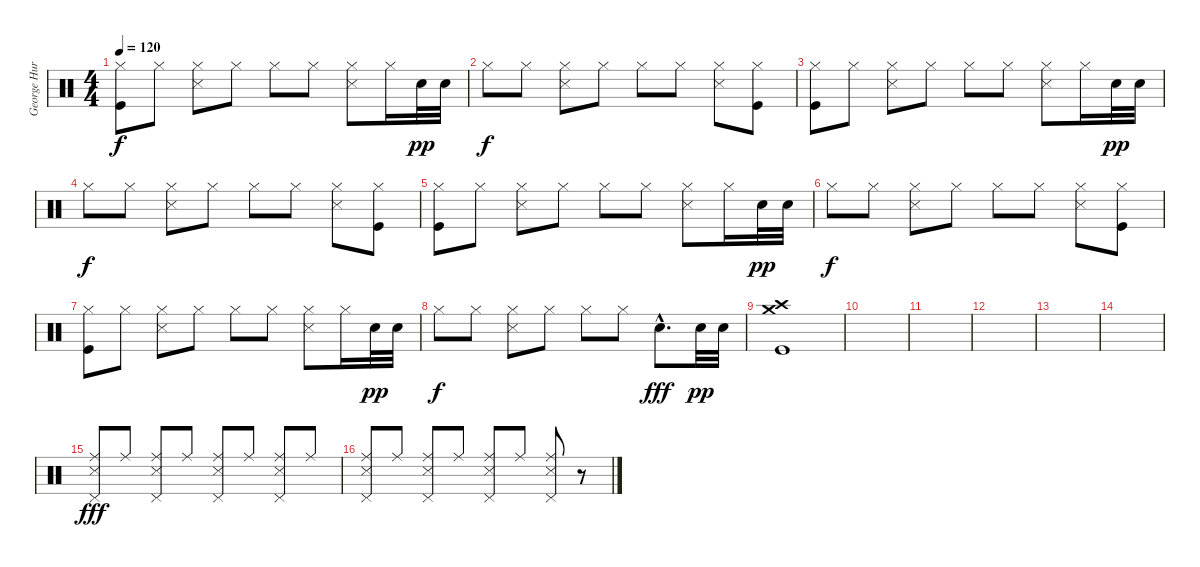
\track ("George Hurley" "George Hur") {instrument percussion}
\staff {score}
\articulation defaults
\ts (4 4)
\tempo 120
\clef neutral
\ks c
("Hi-Hat (closed)" "Kick (hit)").8{dy f} "Hi-Hat (closed)".8 ("Hi-Hat (closed)" "Snare (side stick) 3").8 "Hi-Hat (closed)".8 "Hi-Hat (closed)".8 "Hi-Hat (closed)".8 ("Hi-Hat (closed)" "Snare (side stick) 3").8 "Hi-Hat (closed)".16 "Snare (hit) 2".32{dy pp} "Snare (hit) 2".32 |
"Hi-Hat (closed)".8{dy f} "Hi-Hat (closed)".8 ("Hi-Hat (closed)" "Snare (side stick) 3").8 "Hi-Hat (closed)".8 "Hi-Hat (closed)".8 "Hi-Hat (closed)".8 ("Hi-Hat (closed)" "Snare (side stick) 3").8 ("Hi-Hat (closed)" "Kick (hit)").8 |
("Hi-Hat (closed)" "Kick (hit)").8 "Hi-Hat (closed)".8 ("Hi-Hat (closed)" "Snare (side stick) 3").8 "Hi-Hat (closed)".8 "Hi-Hat (closed)".8 "Hi-Hat (closed)".8 ("Hi-Hat (closed)" "Snare (side stick) 3").8 "Hi-Hat (closed)".16 "Snare (hit) 2".32{dy pp} "Snare (hit) 2".32 |
"Hi-Hat (closed)".8{dy f} "Hi-Hat (closed)".8 ("Hi-Hat (closed)" "Snare (side stick) 3").8 "Hi-Hat (closed)".8 "Hi-Hat (closed)".8 "Hi-Hat (closed)".8 ("Hi-Hat (closed)" "Snare (side stick) 3").8 ("Hi-Hat (closed)" "Kick (hit)").8 |
("Hi-Hat (closed)" "Kick (hit)").8 "Hi-Hat (closed)".8 ("Hi-Hat (closed)" "Snare (side stick) 3").8 "Hi-Hat (closed)".8 "Hi-Hat (closed)".8 "Hi-Hat (closed)".8 ("Hi-Hat (closed)" "Snare (side stick) 3").8 "Hi-Hat (closed)".16 "Snare (hit) 2".32{dy pp} "Snare (hit) 2".32 |
"Hi-Hat (closed)".8{dy f} "Hi-Hat (closed)".8 ("Hi-Hat (closed)" "Snare (side stick) 3").8 "Hi-Hat (closed)".8 "Hi-Hat (closed)".8 "Hi-Hat (closed)".8 ("Hi-Hat (closed)" "Snare (side stick) 3").8 ("Hi-Hat (closed)" "Kick (hit)").8 |
("Hi-Hat (closed)" "Kick (hit)").8 "Hi-Hat (closed)".8 ("Hi-Hat (closed)" "Snare (side stick) 3").8 "Hi-Hat (closed)".8 "Hi-Hat (closed)".8 "Hi-Hat (closed)".8 ("Hi-Hat (closed)" "Snare (side stick) 3").8 "Hi-Hat (closed)".16 "Snare (hit) 2".32{dy pp} "Snare (hit) 2".32 |
"Hi-Hat (closed)".8{dy f} "Hi-Hat (closed)".8 ("Hi-Hat (closed)" "Snare (side stick) 3").8 "Hi-Hat (closed)".8 "Hi-Hat (closed)".8 "Hi-Hat (closed)".8 "Snare (hit) 2"{hac}.8{d dy fff} "Snare (hit) 2".32{dy pp} "Snare (hit) 2".32 |
("Crash high (hit)" "Kick (hit)" "Crash medium (hit)").1 |
|
|
|
|
|
("Ride (middle)" "Snare (side stick) 3" "Pedal Hi-Hat (hit)").8{dy fff} "Ride (middle)".8 ("Ride (middle)" "Snare (side stick) 3" "Pedal Hi-Hat (hit)").8 "Ride (middle)".8 ("Ride (middle)" "Snare (side stick) 3" "Pedal Hi-Hat (hit)").8 "Ride (middle)".8 ("Ride (middle)" "Snare (side stick) 3" "Pedal Hi-Hat (hit)").8 "Ride (middle)".8 |
("Ride (middle)" "Snare (side stick) 3" "Pedal Hi-Hat (hit)").8 "Ride (middle)".8 ("Ride (middle)" "Snare (side stick) 3" "Pedal Hi-Hat (hit)").8 "Ride (middle)".8 ("Ride (middle)" "Snare (side stick) 3" "Pedal Hi-Hat (hit)").8 "Ride (middle)".8 ("Ride (middle)" "Snare (side stick) 3" "Pedal Hi-Hat (hit)").8 r.8
